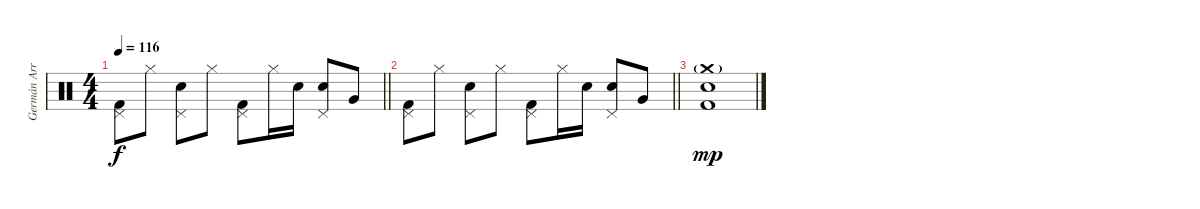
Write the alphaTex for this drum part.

\track ("Germán Arroyo (Batería)" "Germán Arr") {instrument percussion}
\staff {score}
\articulation defaults
\ts (4 4)
\tempo 116
\clef neutral
\barLineRight lightlight
\ks c
("Pedal Hi-Hat (hit)" "Kick (hit) 2").8{dy f} "Hi-Hat (closed)".8 ("Pedal Hi-Hat (hit)" "Snare (hit) 2").8 "Hi-Hat (closed)".8 ("Pedal Hi-Hat (hit)" "Kick (hit) 2").8 "Hi-Hat (closed)".16 "Snare (hit) 2".16 ("Pedal Hi-Hat (hit)" "Snare (hit) 2").8 "Very Low Tom (hit)".8 |
\barLineRight lightlight
("Pedal Hi-Hat (hit)" "Kick (hit) 2").8 "Hi-Hat (closed)".8 ("Pedal Hi-Hat (hit)" "Snare (hit) 2").8 "Hi-Hat (closed)".8 ("Pedal Hi-Hat (hit)" "Kick (hit) 2").8 "Hi-Hat (closed)".16 "Snare (hit) 2".16 ("Pedal Hi-Hat (hit)" "Snare (hit) 2").8 "Very Low Tom (hit)".8 |
("Crash medium (hit)"{g} "Snare (hit) 2" "Kick (hit) 2").1{dy mp}
